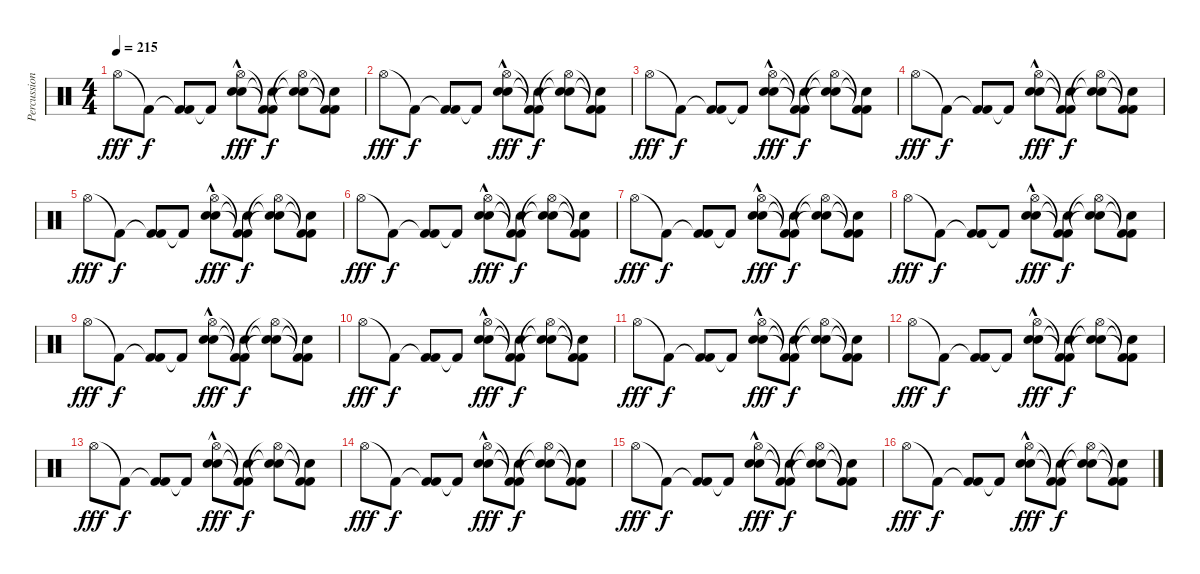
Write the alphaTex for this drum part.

\track ("Percussion" "Percussion") {instrument percussion}
\staff {score}
\articulation defaults
\ts (4 4)
\tempo 215
\clef neutral
\ks c "Hi-Hat (open)".8{dy fff} "Kick (hit) 2"{t}.8{dy f}
("Kick (hit) 2"{t} "Kick (hit) 2").8 "Kick (hit) 2"{t}.8 ("Snare (hit) 2"{hac} "Hi-Hat (open)"{hac} "Electric Snare (hit)").8{dy fff} ("Kick (hit) 2"{t} "Kick (hit) 2"{t} "Snare (hit)"{t}).8{dy f} ("Snare (hit)"{t} "Hi-Hat (open)"{t} "Snare (hit)"{t}).8 ("Kick (hit) 2"{t} "Kick (hit) 2"{t} "Snare (hit)"{t}).8 |
"Hi-Hat (open)".8{dy fff} "Kick (hit) 2"{t}.8{dy f} ("Kick (hit) 2"{t} "Kick (hit) 2").8 "Kick (hit) 2"{t}.8 ("Snare (hit) 2"{hac} "Hi-Hat (open)"{hac} "Electric Snare (hit)").8{dy fff} ("Kick (hit) 2"{t} "Kick (hit) 2"{t} "Snare (hit)"{t}).8{dy f} ("Snare (hit)"{t} "Hi-Hat (open)"{t} "Snare (hit)"{t}).8 ("Kick (hit) 2"{t} "Kick (hit) 2"{t} "Snare (hit)"{t}).8 |
"Hi-Hat (open)".8{dy fff} "Kick (hit) 2"{t}.8{dy f} ("Kick (hit) 2"{t} "Kick (hit) 2").8 "Kick (hit) 2"{t}.8 ("Snare (hit) 2"{hac} "Hi-Hat (open)"{hac} "Electric Snare (hit)").8{dy fff} ("Kick (hit) 2"{t} "Kick (hit) 2"{t} "Snare (hit)"{t}).8{dy f} ("Snare (hit)"{t} "Hi-Hat (open)"{t} "Snare (hit)"{t}).8 ("Kick (hit) 2"{t} "Kick (hit) 2"{t} "Snare (hit)"{t}).8 |
"Hi-Hat (open)".8{dy fff} "Kick (hit) 2"{t}.8{dy f} ("Kick (hit) 2"{t} "Kick (hit) 2").8 "Kick (hit) 2"{t}.8 ("Snare (hit) 2"{hac} "Hi-Hat (open)"{hac} "Electric Snare (hit)").8{dy fff} ("Kick (hit) 2"{t} "Kick (hit) 2"{t} "Snare (hit)"{t}).8{dy f} ("Snare (hit)"{t} "Hi-Hat (open)"{t} "Snare (hit)"{t}).8 ("Kick (hit) 2"{t} "Kick (hit) 2"{t} "Snare (hit)"{t}).8 |
"Hi-Hat (open)".8{dy fff} "Kick (hit) 2"{t}.8{dy f} ("Kick (hit) 2"{t} "Kick (hit) 2").8 "Kick (hit) 2"{t}.8 ("Snare (hit) 2"{hac} "Hi-Hat (open)"{hac} "Electric Snare (hit)").8{dy fff} ("Kick (hit) 2"{t} "Kick (hit) 2"{t} "Snare (hit)"{t}).8{dy f} ("Snare (hit)"{t} "Hi-Hat (open)"{t} "Snare (hit)"{t}).8 ("Kick (hit) 2"{t} "Kick (hit) 2"{t} "Snare (hit)"{t}).8 |
"Hi-Hat (open)".8{dy fff} "Kick (hit) 2"{t}.8{dy f} ("Kick (hit) 2"{t} "Kick (hit) 2").8 "Kick (hit) 2"{t}.8 ("Snare (hit) 2"{hac} "Hi-Hat (open)"{hac} "Electric Snare (hit)").8{dy fff} ("Kick (hit) 2"{t} "Kick (hit) 2"{t} "Snare (hit)"{t}).8{dy f} ("Snare (hit)"{t} "Hi-Hat (open)"{t} "Snare (hit)"{t}).8 ("Kick (hit) 2"{t} "Kick (hit) 2"{t} "Snare (hit)"{t}).8 |
"Hi-Hat (open)".8{dy fff} "Kick (hit) 2"{t}.8{dy f} ("Kick (hit) 2"{t} "Kick (hit) 2").8 "Kick (hit) 2"{t}.8 ("Snare (hit) 2"{hac} "Hi-Hat (open)"{hac} "Electric Snare (hit)").8{dy fff} ("Kick (hit) 2"{t} "Kick (hit) 2"{t} "Snare (hit)"{t}).8{dy f} ("Snare (hit)"{t} "Hi-Hat (open)"{t} "Snare (hit)"{t}).8 ("Kick (hit) 2"{t} "Kick (hit) 2"{t} "Snare (hit)"{t}).8 |
"Hi-Hat (open)".8{dy fff} "Kick (hit) 2"{t}.8{dy f} ("Kick (hit) 2"{t} "Kick (hit) 2").8 "Kick (hit) 2"{t}.8 ("Snare (hit) 2"{hac} "Hi-Hat (open)"{hac} "Electric Snare (hit)").8{dy fff} ("Kick (hit) 2"{t} "Kick (hit) 2"{t} "Snare (hit)"{t}).8{dy f} ("Snare (hit)"{t} "Hi-Hat (open)"{t} "Snare (hit)"{t}).8 ("Kick (hit) 2"{t} "Kick (hit) 2"{t} "Snare (hit)"{t}).8 |
"Hi-Hat (open)".8{dy fff} "Kick (hit) 2"{t}.8{dy f} ("Kick (hit) 2"{t} "Kick (hit) 2").8 "Kick (hit) 2"{t}.8 ("Snare (hit) 2"{hac} "Hi-Hat (open)"{hac} "Electric Snare (hit)").8{dy fff} ("Kick (hit) 2"{t} "Kick (hit) 2"{t} "Snare (hit)"{t}).8{dy f} ("Snare (hit)"{t} "Hi-Hat (open)"{t} "Snare (hit)"{t}).8 ("Kick (hit) 2"{t} "Kick (hit) 2"{t} "Snare (hit)"{t}).8 |
"Hi-Hat (open)".8{dy fff} "Kick (hit) 2"{t}.8{dy f} ("Kick (hit) 2"{t} "Kick (hit) 2").8 "Kick (hit) 2"{t}.8 ("Snare (hit) 2"{hac} "Hi-Hat (open)"{hac} "Electric Snare (hit)").8{dy fff} ("Kick (hit) 2"{t} "Kick (hit) 2"{t} "Snare (hit)"{t}).8{dy f} ("Snare (hit)"{t} "Hi-Hat (open)"{t} "Snare (hit)"{t}).8 ("Kick (hit) 2"{t} "Kick (hit) 2"{t} "Snare (hit)"{t}).8 |
"Hi-Hat (open)".8{dy fff} "Kick (hit) 2"{t}.8{dy f} ("Kick (hit) 2"{t} "Kick (hit) 2").8 "Kick (hit) 2"{t}.8 ("Snare (hit) 2"{hac} "Hi-Hat (open)"{hac} "Electric Snare (hit)").8{dy fff} ("Kick (hit) 2"{t} "Kick (hit) 2"{t} "Snare (hit)"{t}).8{dy f} ("Snare (hit)"{t} "Hi-Hat (open)"{t} "Snare (hit)"{t}).8 ("Kick (hit) 2"{t} "Kick (hit) 2"{t} "Snare (hit)"{t}).8 |
"Hi-Hat (open)".8{dy fff} "Kick (hit) 2"{t}.8{dy f} ("Kick (hit) 2"{t} "Kick (hit) 2").8 "Kick (hit) 2"{t}.8 ("Snare (hit) 2"{hac} "Hi-Hat (open)"{hac} "Electric Snare (hit)").8{dy fff} ("Kick (hit) 2"{t} "Kick (hit) 2"{t} "Snare (hit)"{t}).8{dy f} ("Snare (hit)"{t} "Hi-Hat (open)"{t} "Snare (hit)"{t}).8 ("Kick (hit) 2"{t} "Kick (hit) 2"{t} "Snare (hit)"{t}).8 |
"Hi-Hat (open)".8{dy fff} "Kick (hit) 2"{t}.8{dy f} ("Kick (hit) 2"{t} "Kick (hit) 2").8 "Kick (hit) 2"{t}.8 ("Snare (hit) 2"{hac} "Hi-Hat (open)"{hac} "Electric Snare (hit)").8{dy fff} ("Kick (hit) 2"{t} "Kick (hit) 2"{t} "Snare (hit)"{t}).8{dy f} ("Snare (hit)"{t} "Hi-Hat (open)"{t} "Snare (hit)"{t}).8 ("Kick (hit) 2"{t} "Kick (hit) 2"{t} "Snare (hit)"{t}).8 |
"Hi-Hat (open)".8{dy fff} "Kick (hit) 2"{t}.8{dy f} ("Kick (hit) 2"{t} "Kick (hit) 2").8 "Kick (hit) 2"{t}.8 ("Snare (hit) 2"{hac} "Hi-Hat (open)"{hac} "Electric Snare (hit)").8{dy fff} ("Kick (hit) 2"{t} "Kick (hit) 2"{t} "Snare (hit)"{t}).8{dy f} ("Snare (hit)"{t} "Hi-Hat (open)"{t} "Snare (hit)"{t}).8 ("Kick (hit) 2"{t} "Kick (hit) 2"{t} "Snare (hit)"{t}).8 |
"Hi-Hat (open)".8{dy fff} "Kick (hit) 2"{t}.8{dy f} ("Kick (hit) 2"{t} "Kick (hit) 2").8 "Kick (hit) 2"{t}.8 ("Snare (hit) 2"{hac} "Hi-Hat (open)"{hac} "Electric Snare (hit)").8{dy fff} ("Kick (hit) 2"{t} "Kick (hit) 2"{t} "Snare (hit)"{t}).8{dy f} ("Snare (hit)"{t} "Hi-Hat (open)"{t} "Snare (hit)"{t}).8 ("Kick (hit) 2"{t} "Kick (hit) 2"{t} "Snare (hit)"{t}).8 |
"Hi-Hat (open)".8{dy fff} "Kick (hit) 2"{t}.8{dy f} ("Kick (hit) 2"{t} "Kick (hit) 2").8 "Kick (hit) 2"{t}.8 ("Snare (hit) 2"{hac} "Hi-Hat (open)"{hac} "Electric Snare (hit)").8{dy fff} ("Kick (hit) 2"{t} "Kick (hit) 2"{t} "Snare (hit)"{t}).8{dy f} ("Snare (hit)"{t} "Hi-Hat (open)"{t} "Snare (hit)"{t}).8 ("Kick (hit) 2"{t} "Kick (hit) 2"{t} "Snare (hit)"{t}).8
